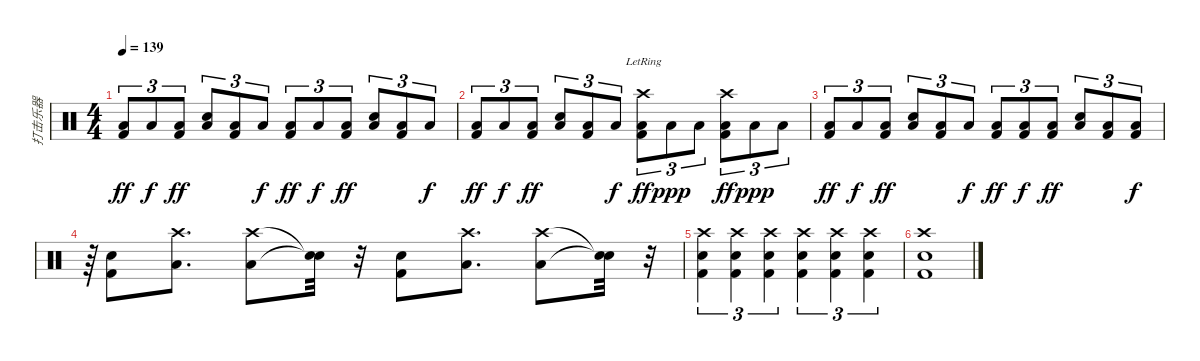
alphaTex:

\track ("打击乐器" "打击乐器") {instrument percussion}
\staff {score}
\articulation defaults
\ts (4 4)
\tempo 139
\clef neutral
\ks c
("Kick (hit) 2" "Low Floor Tom (hit)").8{tu (3 2) dy ff} "Low Floor Tom (hit)".8{tu (3 2) dy f} ("Kick (hit) 2" "Low Floor Tom (hit)").8{tu (3 2) dy ff} ("Snare (hit) 2" "Low Floor Tom (hit)").8{tu (3 2)} ("Kick (hit) 2" "Low Floor Tom (hit)").8{tu (3 2)} "Low Floor Tom (hit)".8{tu (3 2) dy f} ("Kick (hit) 2" "Low Floor Tom (hit)").8{tu (3 2) dy ff} "Low Floor Tom (hit)".8{tu (3 2) dy f} ("Kick (hit) 2" "Low Floor Tom (hit)").8{tu (3 2) dy ff} ("Snare (hit) 2" "Low Floor Tom (hit)").8{tu (3 2)} ("Kick (hit) 2" "Low Floor Tom (hit)").8{tu (3 2)} "Low Floor Tom (hit)".8{tu (3 2) dy f} |
("Kick (hit) 2" "Low Floor Tom (hit)").8{tu (3 2) dy ff} "Low Floor Tom (hit)".8{tu (3 2) dy f} ("Kick (hit) 2" "Low Floor Tom (hit)").8{tu (3 2) dy ff} ("Snare (hit) 2" "Low Floor Tom (hit)").8{tu (3 2)} ("Kick (hit) 2" "Low Floor Tom (hit)").8{tu (3 2)} "Low Floor Tom (hit)".8{tu (3 2) dy f} ("Crash high (hit)" "Kick (hit) 2"{lr} "Low Floor Tom (hit)").8{tu (3 2) dy ff} "Low Floor Tom (hit)".8{tu (3 2) dy ppp} "Low Floor Tom (hit)".8{tu (3 2)} ("Crash high (hit)" "Kick (hit) 2" "Low Floor Tom (hit)").8{tu (3 2) dy ff} "Low Floor Tom (hit)".8{tu (3 2) dy ppp} "Low Floor Tom (hit)".8{tu (3 2)} |
("Kick (hit) 2" "Low Floor Tom (hit)").8{tu (3 2) dy ff} "Low Floor Tom (hit)".8{tu (3 2) dy f} ("Kick (hit) 2" "Low Floor Tom (hit)").8{tu (3 2) dy ff} ("Snare (hit) 2" "Low Floor Tom (hit)").8{tu (3 2)} ("Kick (hit) 2" "Low Floor Tom (hit)").8{tu (3 2)} "Low Floor Tom (hit)".8{tu (3 2) dy f} ("Kick (hit) 2" "Low Floor Tom (hit)").8{tu (3 2) dy ff} ("Kick (hit) 2" "Low Floor Tom (hit)").8{tu (3 2) dy f} ("Kick (hit) 2" "Low Floor Tom (hit)").8{tu (3 2) dy ff} ("Snare (hit) 2" "Low Floor Tom (hit)").8{tu (3 2)} ("Kick (hit) 2" "Low Floor Tom (hit)").8{tu (3 2)} ("Kick (hit) 2" "Low Floor Tom (hit)").8{tu (3 2) dy f} |
r.64{tu (3 2)} ("Snare (hit) 2" "Kick (hit) 2").8 ("Crash high (hit)" "Low Floor Tom (hit)").8{d} ("Crash high (hit)" "Low Floor Tom (hit)").8 ("Snare (hit)"{t} "Snare (hit)"{t}).32 r.32 ("Snare (hit) 2" "Kick (hit) 2").8 ("Crash high (hit)" "Low Floor Tom (hit)").8{d} ("Crash high (hit)" "Low Floor Tom (hit)").8 ("Snare (hit)"{t} "Snare (hit)"{t}).32 r.32{tu (3 2)} |
("Kick (hit) 2" "Snare (hit) 2" "Crash high (hit)").4{tu (3 2)} ("Kick (hit) 2" "Snare (hit) 2" "Crash high (hit)").4{tu (3 2)} ("Kick (hit) 2" "Snare (hit) 2" "Crash high (hit)").4{tu (3 2)} ("Kick (hit) 2" "Snare (hit) 2" "Crash high (hit)").4{tu (3 2)} ("Kick (hit) 2" "Snare (hit) 2" "Crash high (hit)").4{tu (3 2)} ("Kick (hit) 2" "Snare (hit) 2" "Crash high (hit)").4{tu (3 2)} |
("Kick (hit) 2" "Snare (hit) 2" "Crash high (hit)").1
